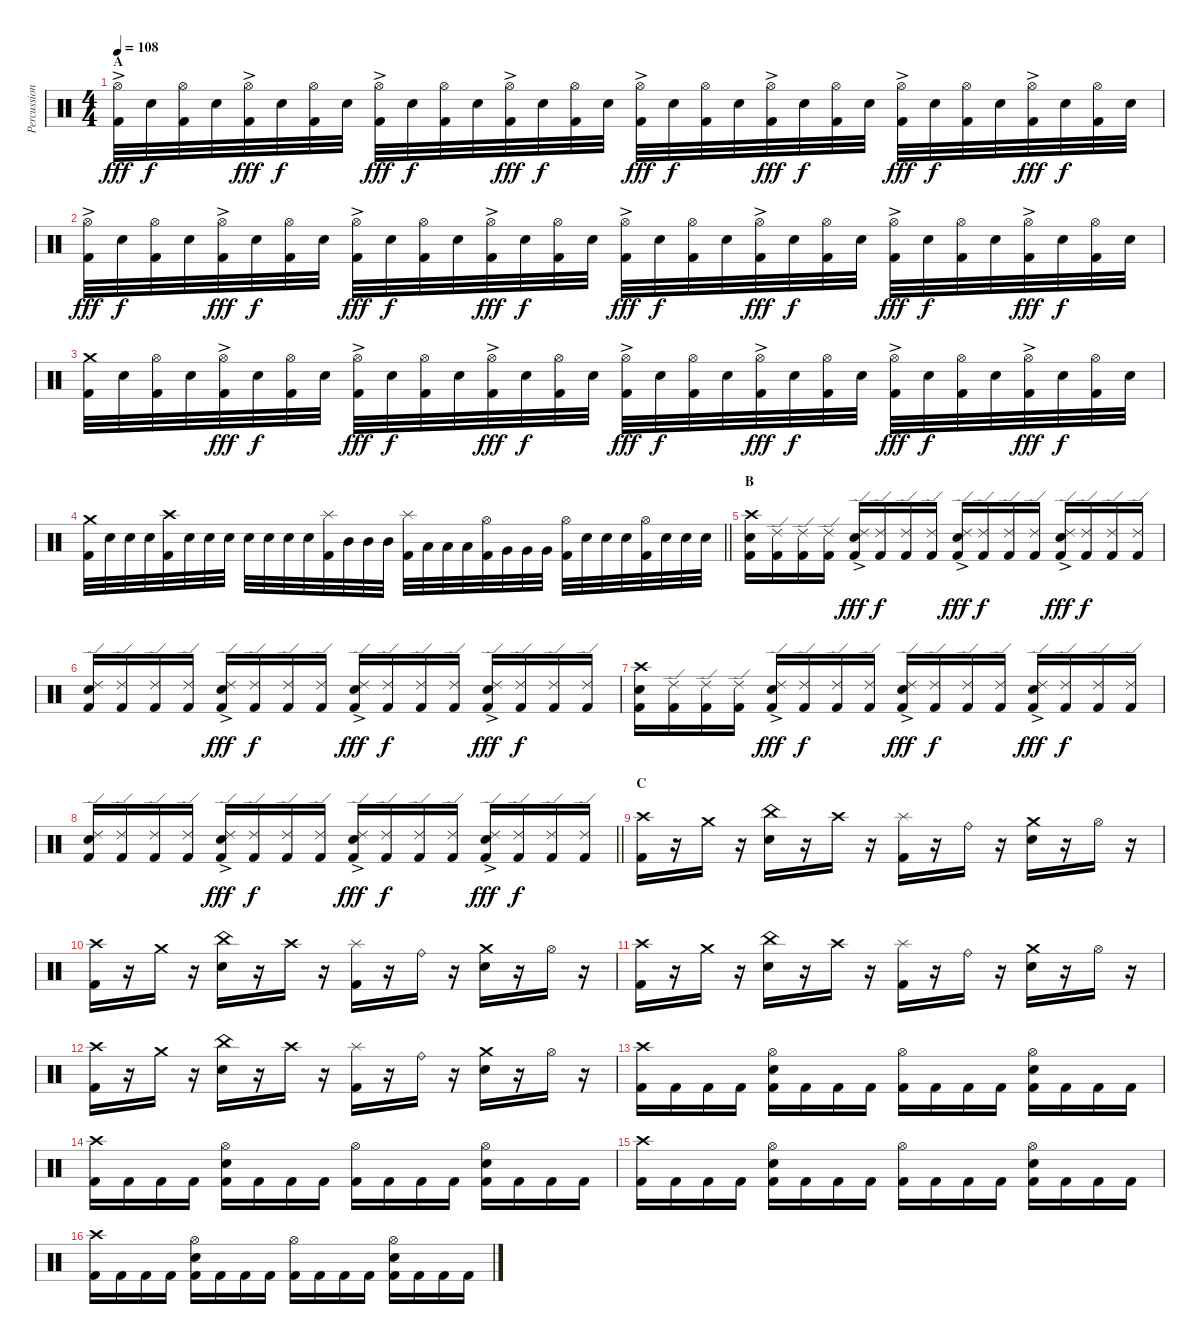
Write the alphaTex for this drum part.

\track ("Percussion" "Percussion") {instrument percussion}
\staff {score}
\articulation defaults
\ts (4 4)
\section ("" "A")
\tempo 108
\clef neutral
\ks c
("Hi-Hat (open)"{ac} "Kick (hit) 2").32{dy fff} "Electric Snare (hit)".32{dy f} ("Hi-Hat (open)" "Kick (hit) 2").32 "Electric Snare (hit)".32 ("Hi-Hat (open)"{ac} "Kick (hit) 2").32{dy fff} "Electric Snare (hit)".32{dy f} ("Hi-Hat (open)" "Kick (hit) 2").32 "Electric Snare (hit)".32 ("Hi-Hat (open)"{ac} "Kick (hit) 2").32{dy fff} "Electric Snare (hit)".32{dy f} ("Hi-Hat (open)" "Kick (hit) 2").32 "Electric Snare (hit)".32 ("Hi-Hat (open)"{ac} "Kick (hit) 2").32{dy fff} "Electric Snare (hit)".32{dy f} ("Hi-Hat (open)" "Kick (hit) 2").32 "Electric Snare (hit)".32 ("Hi-Hat (open)"{ac} "Kick (hit) 2").32{dy fff} "Electric Snare (hit)".32{dy f} ("Hi-Hat (open)" "Kick (hit) 2").32 "Electric Snare (hit)".32 ("Hi-Hat (open)"{ac} "Kick (hit) 2").32{dy fff} "Electric Snare (hit)".32{dy f} ("Hi-Hat (open)" "Kick (hit) 2").32 "Electric Snare (hit)".32 ("Hi-Hat (open)"{ac} "Kick (hit) 2").32{dy fff} "Electric Snare (hit)".32{dy f} ("Hi-Hat (open)" "Kick (hit) 2").32 "Electric Snare (hit)".32 ("Hi-Hat (open)"{ac} "Kick (hit) 2").32{dy fff} "Electric Snare (hit)".32{dy f} ("Hi-Hat (open)" "Kick (hit) 2").32 "Electric Snare (hit)".32 |
("Hi-Hat (open)"{ac} "Kick (hit) 2").32{dy fff} "Electric Snare (hit)".32{dy f} ("Hi-Hat (open)" "Kick (hit) 2").32 "Electric Snare (hit)".32 ("Hi-Hat (open)"{ac} "Kick (hit) 2").32{dy fff} "Electric Snare (hit)".32{dy f} ("Hi-Hat (open)" "Kick (hit) 2").32 "Electric Snare (hit)".32 ("Hi-Hat (open)"{ac} "Kick (hit) 2").32{dy fff} "Electric Snare (hit)".32{dy f} ("Hi-Hat (open)" "Kick (hit) 2").32 "Electric Snare (hit)".32 ("Hi-Hat (open)"{ac} "Kick (hit) 2").32{dy fff} "Electric Snare (hit)".32{dy f} ("Hi-Hat (open)" "Kick (hit) 2").32 "Electric Snare (hit)".32 ("Hi-Hat (open)"{ac} "Kick (hit) 2").32{dy fff} "Electric Snare (hit)".32{dy f} ("Hi-Hat (open)" "Kick (hit) 2").32 "Electric Snare (hit)".32 ("Hi-Hat (open)"{ac} "Kick (hit) 2").32{dy fff} "Electric Snare (hit)".32{dy f} ("Hi-Hat (open)" "Kick (hit) 2").32 "Electric Snare (hit)".32 ("Hi-Hat (open)"{ac} "Kick (hit) 2").32{dy fff} "Electric Snare (hit)".32{dy f} ("Hi-Hat (open)" "Kick (hit) 2").32 "Electric Snare (hit)".32 ("Hi-Hat (open)"{ac} "Kick (hit) 2").32{dy fff} "Electric Snare (hit)".32{dy f} ("Hi-Hat (open)" "Kick (hit) 2").32 "Electric Snare (hit)".32 |
("Crash medium (hit)" "Kick (hit) 2").32 "Electric Snare (hit)".32 ("Hi-Hat (open)" "Kick (hit) 2").32 "Electric Snare (hit)".32 ("Hi-Hat (open)"{ac} "Kick (hit) 2").32{dy fff} "Electric Snare (hit)".32{dy f} ("Hi-Hat (open)" "Kick (hit) 2").32 "Electric Snare (hit)".32 ("Hi-Hat (open)"{ac} "Kick (hit) 2").32{dy fff} "Electric Snare (hit)".32{dy f} ("Hi-Hat (open)" "Kick (hit) 2").32 "Electric Snare (hit)".32 ("Hi-Hat (open)"{ac} "Kick (hit) 2").32{dy fff} "Electric Snare (hit)".32{dy f} ("Hi-Hat (open)" "Kick (hit) 2").32 "Electric Snare (hit)".32 ("Hi-Hat (open)"{ac} "Kick (hit) 2").32{dy fff} "Electric Snare (hit)".32{dy f} ("Hi-Hat (open)" "Kick (hit) 2").32 "Electric Snare (hit)".32 ("Hi-Hat (open)"{ac} "Kick (hit) 2").32{dy fff} "Electric Snare (hit)".32{dy f} ("Hi-Hat (open)" "Kick (hit) 2").32 "Electric Snare (hit)".32 ("Hi-Hat (open)"{ac} "Kick (hit) 2").32{dy fff} "Electric Snare (hit)".32{dy f} ("Hi-Hat (open)" "Kick (hit) 2").32 "Electric Snare (hit)".32 ("Hi-Hat (open)"{ac} "Kick (hit) 2").32{dy fff} "Electric Snare (hit)".32{dy f} ("Hi-Hat (open)" "Kick (hit) 2").32 "Electric Snare (hit)".32 |
\barLineRight lightlight
("Crash medium (hit)" "Kick (hit) 2").32 "Electric Snare (hit)".32 "Electric Snare (hit)".32 "Electric Snare (hit)".32 ("Crash high (hit)" "Kick (hit) 2").32 "Electric Snare (hit)".32 "Electric Snare (hit)".32 "Electric Snare (hit)".32 "Electric Snare (hit)".32 "Electric Snare (hit)".32 "Electric Snare (hit)".32 "Electric Snare (hit)".32 ("Splash (hit)" "Kick (hit) 2").32 "Mid Tom (hit)".32 "Mid Tom (hit)".32 "Mid Tom (hit)".32 ("Splash (hit)" "Kick (hit) 2").32 "Low Tom (hit)".32 "Low Tom (hit)".32 "Low Tom (hit)".32 ("Hi-Hat (open)" "Kick (hit) 2").32 "Very Low Tom (hit)".32 "Very Low Tom (hit)".32 "Very Low Tom (hit)".32 ("Hi-Hat (open)" "Kick (hit) 2").32 "Electric Snare (hit)".32 "Electric Snare (hit)".32 "Electric Snare (hit)".32 ("Hi-Hat (open)" "Kick (hit) 2").32 "Electric Snare (hit)".32 "Electric Snare (hit)".32 "Electric Snare (hit)".32 |
\section ("" "B")
("Crash high (hit)" "Electric Snare (hit)" "Kick (hit) 2").16 ("Ride (edge) 2" "Kick (hit) 2").16 ("Ride (edge) 2" "Kick (hit) 2").16 ("Ride (edge) 2" "Kick (hit) 2").16 ("Ride (edge) 2"{ac} "Electric Snare (hit)" "Kick (hit) 2").16{dy fff} ("Ride (edge) 2" "Kick (hit) 2").16{dy f} ("Ride (edge) 2" "Kick (hit) 2").16 ("Ride (edge) 2" "Kick (hit) 2").16 ("Ride (edge) 2"{ac} "Electric Snare (hit)" "Kick (hit) 2").16{dy fff} ("Ride (edge) 2" "Kick (hit) 2").16{dy f} ("Ride (edge) 2" "Kick (hit) 2").16 ("Ride (edge) 2" "Kick (hit) 2").16 ("Ride (edge) 2"{ac} "Electric Snare (hit)" "Kick (hit) 2").16{dy fff} ("Ride (edge) 2" "Kick (hit) 2").16{dy f} ("Ride (edge) 2" "Kick (hit) 2").16 ("Ride (edge) 2" "Kick (hit) 2").16 |
("Ride (edge) 2" "Electric Snare (hit)" "Kick (hit) 2").16 ("Ride (edge) 2" "Kick (hit) 2").16 ("Ride (edge) 2" "Kick (hit) 2").16 ("Ride (edge) 2" "Kick (hit) 2").16 ("Ride (edge) 2"{ac} "Electric Snare (hit)" "Kick (hit) 2").16{dy fff} ("Ride (edge) 2" "Kick (hit) 2").16{dy f} ("Ride (edge) 2" "Kick (hit) 2").16 ("Ride (edge) 2" "Kick (hit) 2").16 ("Ride (edge) 2"{ac} "Electric Snare (hit)" "Kick (hit) 2").16{dy fff} ("Ride (edge) 2" "Kick (hit) 2").16{dy f} ("Ride (edge) 2" "Kick (hit) 2").16 ("Ride (edge) 2" "Kick (hit) 2").16 ("Ride (edge) 2"{ac} "Electric Snare (hit)" "Kick (hit) 2").16{dy fff} ("Ride (edge) 2" "Kick (hit) 2").16{dy f} ("Ride (edge) 2" "Kick (hit) 2").16 ("Ride (edge) 2" "Kick (hit) 2").16 |
("Crash high (hit)" "Electric Snare (hit)" "Kick (hit) 2").16 ("Ride (edge) 2" "Kick (hit) 2").16 ("Ride (edge) 2" "Kick (hit) 2").16 ("Ride (edge) 2" "Kick (hit) 2").16 ("Ride (edge) 2"{ac} "Electric Snare (hit)" "Kick (hit) 2").16{dy fff} ("Ride (edge) 2" "Kick (hit) 2").16{dy f} ("Ride (edge) 2" "Kick (hit) 2").16 ("Ride (edge) 2" "Kick (hit) 2").16 ("Ride (edge) 2"{ac} "Electric Snare (hit)" "Kick (hit) 2").16{dy fff} ("Ride (edge) 2" "Kick (hit) 2").16{dy f} ("Ride (edge) 2" "Kick (hit) 2").16 ("Ride (edge) 2" "Kick (hit) 2").16 ("Ride (edge) 2"{ac} "Electric Snare (hit)" "Kick (hit) 2").16{dy fff} ("Ride (edge) 2" "Kick (hit) 2").16{dy f} ("Ride (edge) 2" "Kick (hit) 2").16 ("Ride (edge) 2" "Kick (hit) 2").16 |
\barLineRight lightlight
("Ride (edge) 2" "Electric Snare (hit)" "Kick (hit) 2").16 ("Ride (edge) 2" "Kick (hit) 2").16 ("Ride (edge) 2" "Kick (hit) 2").16 ("Ride (edge) 2" "Kick (hit) 2").16 ("Ride (edge) 2"{ac} "Electric Snare (hit)" "Kick (hit) 2").16{dy fff} ("Ride (edge) 2" "Kick (hit) 2").16{dy f} ("Ride (edge) 2" "Kick (hit) 2").16 ("Ride (edge) 2" "Kick (hit) 2").16 ("Ride (edge) 2"{ac} "Electric Snare (hit)" "Kick (hit) 2").16{dy fff} ("Ride (edge) 2" "Kick (hit) 2").16{dy f} ("Ride (edge) 2" "Kick (hit) 2").16 ("Ride (edge) 2" "Kick (hit) 2").16 ("Ride (edge) 2"{ac} "Electric Snare (hit)" "Kick (hit) 2").16{dy fff} ("Ride (edge) 2" "Kick (hit) 2").16{dy f} ("Ride (edge) 2" "Kick (hit) 2").16 ("Ride (edge) 2" "Kick (hit) 2").16 |
\section ("" "C")
("Crash high (hit)" "Kick (hit) 2").16 r.16 "Crash medium (hit)".16 r.16 ("China (hit)" "Electric Snare (hit)").16 r.16 "Crash high (hit)".16 r.16 ("Splash (hit)" "Kick (hit) 2").16 r.16 "Ride (bell)".16 r.16 ("Crash medium (hit)" "Electric Snare (hit)").16 r.16 "Hi-Hat (open)".16 r.16 |
("Crash high (hit)" "Kick (hit) 2").16 r.16 "Crash medium (hit)".16 r.16 ("China (hit)" "Electric Snare (hit)").16 r.16 "Crash high (hit)".16 r.16 ("Splash (hit)" "Kick (hit) 2").16 r.16 "Ride (bell)".16 r.16 ("Crash medium (hit)" "Electric Snare (hit)").16 r.16 "Hi-Hat (open)".16 r.16 |
("Crash high (hit)" "Kick (hit) 2").16 r.16 "Crash medium (hit)".16 r.16 ("China (hit)" "Electric Snare (hit)").16 r.16 "Crash high (hit)".16 r.16 ("Splash (hit)" "Kick (hit) 2").16 r.16 "Ride (bell)".16 r.16 ("Crash medium (hit)" "Electric Snare (hit)").16 r.16 "Hi-Hat (open)".16 r.16 |
("Crash high (hit)" "Kick (hit) 2").16 r.16 "Crash medium (hit)".16 r.16 ("China (hit)" "Electric Snare (hit)").16 r.16 "Crash high (hit)".16 r.16 ("Splash (hit)" "Kick (hit) 2").16 r.16 "Ride (bell)".16 r.16 ("Crash medium (hit)" "Electric Snare (hit)").16 r.16 "Hi-Hat (open)".16 r.16 |
("Crash high (hit)" "Kick (hit) 2").16 "Kick (hit) 2".16 "Kick (hit) 2".16 "Kick (hit) 2".16 ("Hi-Hat (open)" "Electric Snare (hit)" "Kick (hit) 2").16 "Kick (hit) 2".16 "Kick (hit) 2".16 "Kick (hit) 2".16 ("Hi-Hat (open)" "Kick (hit) 2").16 "Kick (hit) 2".16 "Kick (hit) 2".16 "Kick (hit) 2".16 ("Hi-Hat (open)" "Electric Snare (hit)" "Kick (hit) 2").16 "Kick (hit) 2".16 "Kick (hit) 2".16 "Kick (hit) 2".16 |
("Crash high (hit)" "Kick (hit) 2").16 "Kick (hit) 2".16 "Kick (hit) 2".16 "Kick (hit) 2".16 ("Hi-Hat (open)" "Electric Snare (hit)" "Kick (hit) 2").16 "Kick (hit) 2".16 "Kick (hit) 2".16 "Kick (hit) 2".16 ("Hi-Hat (open)" "Kick (hit) 2").16 "Kick (hit) 2".16 "Kick (hit) 2".16 "Kick (hit) 2".16 ("Hi-Hat (open)" "Electric Snare (hit)" "Kick (hit) 2").16 "Kick (hit) 2".16 "Kick (hit) 2".16 "Kick (hit) 2".16 |
("Crash high (hit)" "Kick (hit) 2").16 "Kick (hit) 2".16 "Kick (hit) 2".16 "Kick (hit) 2".16 ("Hi-Hat (open)" "Electric Snare (hit)" "Kick (hit) 2").16 "Kick (hit) 2".16 "Kick (hit) 2".16 "Kick (hit) 2".16 ("Hi-Hat (open)" "Kick (hit) 2").16 "Kick (hit) 2".16 "Kick (hit) 2".16 "Kick (hit) 2".16 ("Hi-Hat (open)" "Electric Snare (hit)" "Kick (hit) 2").16 "Kick (hit) 2".16 "Kick (hit) 2".16 "Kick (hit) 2".16 |
("Crash high (hit)" "Kick (hit) 2").16 "Kick (hit) 2".16 "Kick (hit) 2".16 "Kick (hit) 2".16 ("Hi-Hat (open)" "Electric Snare (hit)" "Kick (hit) 2").16 "Kick (hit) 2".16 "Kick (hit) 2".16 "Kick (hit) 2".16 ("Hi-Hat (open)" "Kick (hit) 2").16 "Kick (hit) 2".16 "Kick (hit) 2".16 "Kick (hit) 2".16 ("Hi-Hat (open)" "Electric Snare (hit)" "Kick (hit) 2").16 "Kick (hit) 2".16 "Kick (hit) 2".16 "Kick (hit) 2".16
